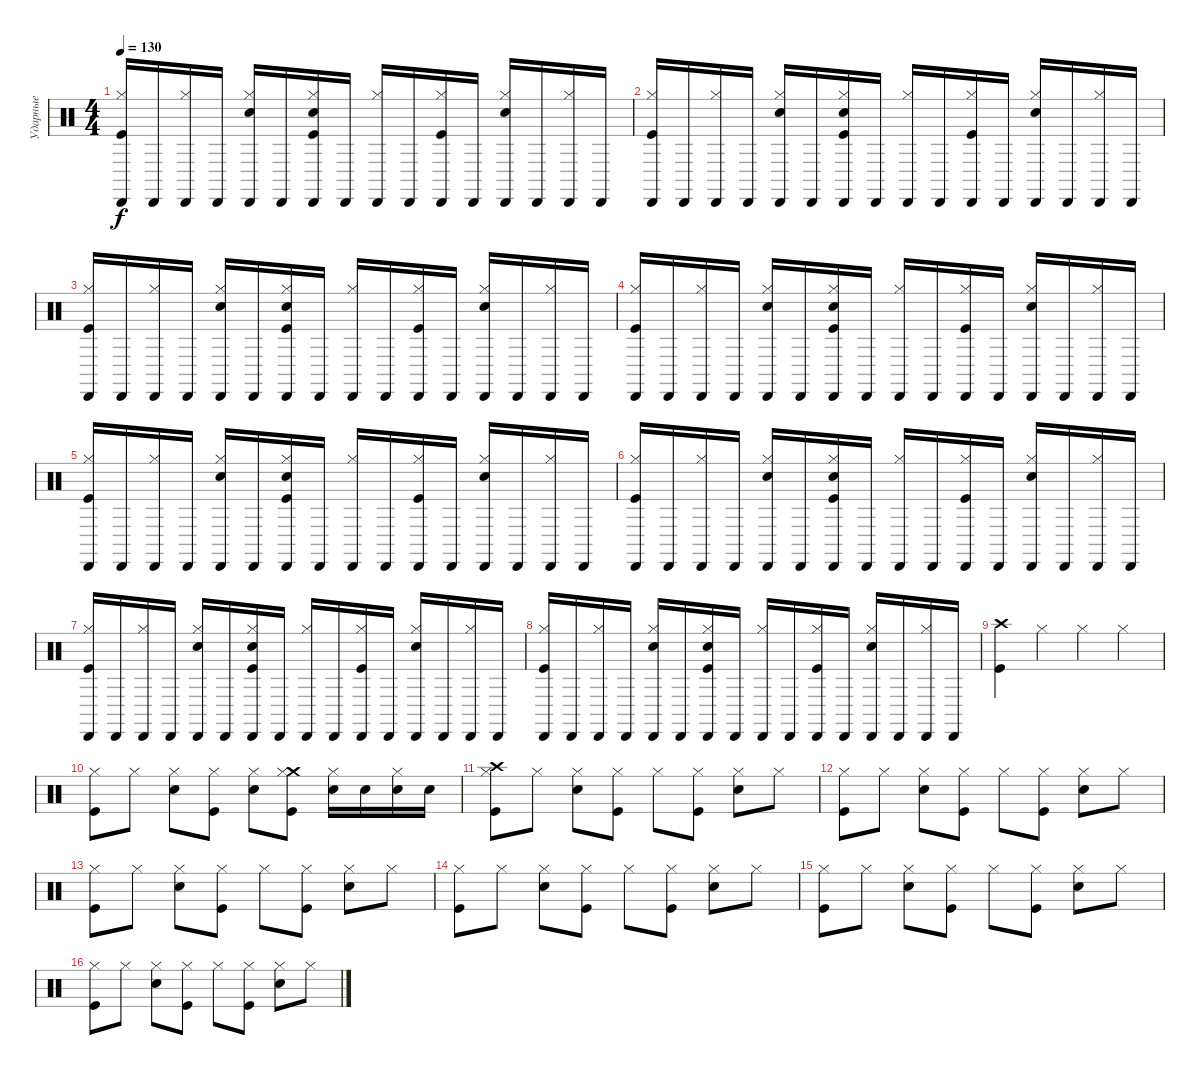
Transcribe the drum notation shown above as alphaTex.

\track ("Ударные" "Ударные") {instrument percussion}
\staff {score}
\articulation defaults
\ts (4 4)
\tempo 130
\clef neutral
\ks c
("Cabasa (hit)" "Hi-Hat (closed)" "Kick (hit)").16{dy f} "Cabasa (hit)".16 ("Cabasa (hit)" "Hi-Hat (closed)").16 "Cabasa (hit)".16 ("Cabasa (hit)" "Hi-Hat (closed)" "Electric Snare (hit)").16 "Cabasa (hit)".16 ("Cabasa (hit)" "Hi-Hat (closed)" "Electric Snare (hit)" "Kick (hit)").16 "Cabasa (hit)".16 ("Cabasa (hit)" "Hi-Hat (closed)").16 "Cabasa (hit)".16 ("Cabasa (hit)" "Hi-Hat (closed)" "Kick (hit)").16 "Cabasa (hit)".16 ("Cabasa (hit)" "Hi-Hat (closed)" "Electric Snare (hit)").16 "Cabasa (hit)".16 ("Cabasa (hit)" "Hi-Hat (closed)").16 "Cabasa (hit)".16 |
("Cabasa (hit)" "Hi-Hat (closed)" "Kick (hit)").16 "Cabasa (hit)".16 ("Cabasa (hit)" "Hi-Hat (closed)").16 "Cabasa (hit)".16 ("Cabasa (hit)" "Hi-Hat (closed)" "Electric Snare (hit)").16 "Cabasa (hit)".16 ("Cabasa (hit)" "Hi-Hat (closed)" "Electric Snare (hit)" "Kick (hit)").16 "Cabasa (hit)".16 ("Cabasa (hit)" "Hi-Hat (closed)").16 "Cabasa (hit)".16 ("Cabasa (hit)" "Hi-Hat (closed)" "Kick (hit)").16 "Cabasa (hit)".16 ("Cabasa (hit)" "Hi-Hat (closed)" "Electric Snare (hit)").16 "Cabasa (hit)".16 ("Cabasa (hit)" "Hi-Hat (closed)").16 "Cabasa (hit)".16 |
("Cabasa (hit)" "Hi-Hat (closed)" "Kick (hit)").16 "Cabasa (hit)".16 ("Cabasa (hit)" "Hi-Hat (closed)").16 "Cabasa (hit)".16 ("Cabasa (hit)" "Hi-Hat (closed)" "Electric Snare (hit)").16 "Cabasa (hit)".16 ("Cabasa (hit)" "Hi-Hat (closed)" "Electric Snare (hit)" "Kick (hit)").16 "Cabasa (hit)".16 ("Cabasa (hit)" "Hi-Hat (closed)").16 "Cabasa (hit)".16 ("Cabasa (hit)" "Hi-Hat (closed)" "Kick (hit)").16 "Cabasa (hit)".16 ("Cabasa (hit)" "Hi-Hat (closed)" "Electric Snare (hit)").16 "Cabasa (hit)".16 ("Cabasa (hit)" "Hi-Hat (closed)").16 "Cabasa (hit)".16 |
("Cabasa (hit)" "Hi-Hat (closed)" "Kick (hit)").16 "Cabasa (hit)".16 ("Cabasa (hit)" "Hi-Hat (closed)").16 "Cabasa (hit)".16 ("Cabasa (hit)" "Hi-Hat (closed)" "Electric Snare (hit)").16 "Cabasa (hit)".16 ("Cabasa (hit)" "Hi-Hat (closed)" "Electric Snare (hit)" "Kick (hit)").16 "Cabasa (hit)".16 ("Cabasa (hit)" "Hi-Hat (closed)").16 "Cabasa (hit)".16 ("Cabasa (hit)" "Hi-Hat (closed)" "Kick (hit)").16 "Cabasa (hit)".16 ("Cabasa (hit)" "Hi-Hat (closed)" "Electric Snare (hit)").16 "Cabasa (hit)".16 ("Cabasa (hit)" "Hi-Hat (closed)").16 "Cabasa (hit)".16 |
("Cabasa (hit)" "Hi-Hat (closed)" "Kick (hit)").16 "Cabasa (hit)".16 ("Cabasa (hit)" "Hi-Hat (closed)").16 "Cabasa (hit)".16 ("Cabasa (hit)" "Hi-Hat (closed)" "Electric Snare (hit)").16 "Cabasa (hit)".16 ("Cabasa (hit)" "Hi-Hat (closed)" "Electric Snare (hit)" "Kick (hit)").16 "Cabasa (hit)".16 ("Cabasa (hit)" "Hi-Hat (closed)").16 "Cabasa (hit)".16 ("Cabasa (hit)" "Hi-Hat (closed)" "Kick (hit)").16 "Cabasa (hit)".16 ("Cabasa (hit)" "Hi-Hat (closed)" "Electric Snare (hit)").16 "Cabasa (hit)".16 ("Cabasa (hit)" "Hi-Hat (closed)").16 "Cabasa (hit)".16 |
("Cabasa (hit)" "Hi-Hat (closed)" "Kick (hit)").16 "Cabasa (hit)".16 ("Cabasa (hit)" "Hi-Hat (closed)").16 "Cabasa (hit)".16 ("Cabasa (hit)" "Hi-Hat (closed)" "Electric Snare (hit)").16 "Cabasa (hit)".16 ("Cabasa (hit)" "Hi-Hat (closed)" "Electric Snare (hit)" "Kick (hit)").16 "Cabasa (hit)".16 ("Cabasa (hit)" "Hi-Hat (closed)").16 "Cabasa (hit)".16 ("Cabasa (hit)" "Hi-Hat (closed)" "Kick (hit)").16 "Cabasa (hit)".16 ("Cabasa (hit)" "Hi-Hat (closed)" "Electric Snare (hit)").16 "Cabasa (hit)".16 ("Cabasa (hit)" "Hi-Hat (closed)").16 "Cabasa (hit)".16 |
("Cabasa (hit)" "Hi-Hat (closed)" "Kick (hit)").16 "Cabasa (hit)".16 ("Cabasa (hit)" "Hi-Hat (closed)").16 "Cabasa (hit)".16 ("Cabasa (hit)" "Hi-Hat (closed)" "Electric Snare (hit)").16 "Cabasa (hit)".16 ("Cabasa (hit)" "Hi-Hat (closed)" "Electric Snare (hit)" "Kick (hit)").16 "Cabasa (hit)".16 ("Cabasa (hit)" "Hi-Hat (closed)").16 "Cabasa (hit)".16 ("Cabasa (hit)" "Hi-Hat (closed)" "Kick (hit)").16 "Cabasa (hit)".16 ("Cabasa (hit)" "Hi-Hat (closed)" "Electric Snare (hit)").16 "Cabasa (hit)".16 ("Cabasa (hit)" "Hi-Hat (closed)").16 "Cabasa (hit)".16 |
("Cabasa (hit)" "Hi-Hat (closed)" "Kick (hit)").16 "Cabasa (hit)".16 ("Cabasa (hit)" "Hi-Hat (closed)").16 "Cabasa (hit)".16 ("Cabasa (hit)" "Hi-Hat (closed)" "Electric Snare (hit)").16 "Cabasa (hit)".16 ("Cabasa (hit)" "Hi-Hat (closed)" "Electric Snare (hit)" "Kick (hit)").16 "Cabasa (hit)".16 ("Cabasa (hit)" "Hi-Hat (closed)").16 "Cabasa (hit)".16 ("Cabasa (hit)" "Hi-Hat (closed)" "Kick (hit)").16 "Cabasa (hit)".16 ("Cabasa (hit)" "Hi-Hat (closed)" "Electric Snare (hit)").16 "Cabasa (hit)".16 ("Cabasa (hit)" "Hi-Hat (closed)").16 "Cabasa (hit)".16 |
("Crash high (hit)" "Kick (hit)").4 "Hi-Hat (closed)".4 "Hi-Hat (closed)".4 "Hi-Hat (closed)".4 |
("Hi-Hat (closed)" "Kick (hit)").8 "Hi-Hat (closed)".8 ("Hi-Hat (closed)" "Electric Snare (hit)").8 ("Hi-Hat (closed)" "Kick (hit)").8 ("Hi-Hat (closed)" "Electric Snare (hit)").8 ("Crash medium (hit)" "Hi-Hat (closed)" "Kick (hit)").8 ("Hi-Hat (closed)" "Electric Snare (hit)").16 "Electric Snare (hit)".16 ("Hi-Hat (closed)" "Electric Snare (hit)").16 "Electric Snare (hit)".16 |
("Hi-Hat (closed)" "Crash high (hit)" "Kick (hit)").8 "Hi-Hat (closed)".8 ("Hi-Hat (closed)" "Electric Snare (hit)").8 ("Hi-Hat (closed)" "Kick (hit)").8 "Hi-Hat (closed)".8 ("Hi-Hat (closed)" "Kick (hit)").8 ("Hi-Hat (closed)" "Electric Snare (hit)").8 "Hi-Hat (closed)".8 |
("Hi-Hat (closed)" "Kick (hit)").8 "Hi-Hat (closed)".8 ("Hi-Hat (closed)" "Electric Snare (hit)").8 ("Hi-Hat (closed)" "Kick (hit)").8 "Hi-Hat (closed)".8 ("Hi-Hat (closed)" "Kick (hit)").8 ("Hi-Hat (closed)" "Electric Snare (hit)").8 "Hi-Hat (closed)".8 |
("Hi-Hat (closed)" "Kick (hit)").8 "Hi-Hat (closed)".8 ("Hi-Hat (closed)" "Electric Snare (hit)").8 ("Hi-Hat (closed)" "Kick (hit)").8 "Hi-Hat (closed)".8 ("Hi-Hat (closed)" "Kick (hit)").8 ("Hi-Hat (closed)" "Electric Snare (hit)").8 "Hi-Hat (closed)".8 |
("Hi-Hat (closed)" "Kick (hit)").8 "Hi-Hat (closed)".8 ("Hi-Hat (closed)" "Electric Snare (hit)").8 ("Hi-Hat (closed)" "Kick (hit)").8 "Hi-Hat (closed)".8 ("Hi-Hat (closed)" "Kick (hit)").8 ("Hi-Hat (closed)" "Electric Snare (hit)").8 "Hi-Hat (closed)".8 |
("Hi-Hat (closed)" "Kick (hit)").8 "Hi-Hat (closed)".8 ("Hi-Hat (closed)" "Electric Snare (hit)").8 ("Hi-Hat (closed)" "Kick (hit)").8 "Hi-Hat (closed)".8 ("Hi-Hat (closed)" "Kick (hit)").8 ("Hi-Hat (closed)" "Electric Snare (hit)").8 "Hi-Hat (closed)".8 |
("Hi-Hat (closed)" "Kick (hit)").8 "Hi-Hat (closed)".8 ("Hi-Hat (closed)" "Electric Snare (hit)").8 ("Hi-Hat (closed)" "Kick (hit)").8 "Hi-Hat (closed)".8 ("Hi-Hat (closed)" "Kick (hit)").8 ("Hi-Hat (closed)" "Electric Snare (hit)").8 "Hi-Hat (closed)".8
